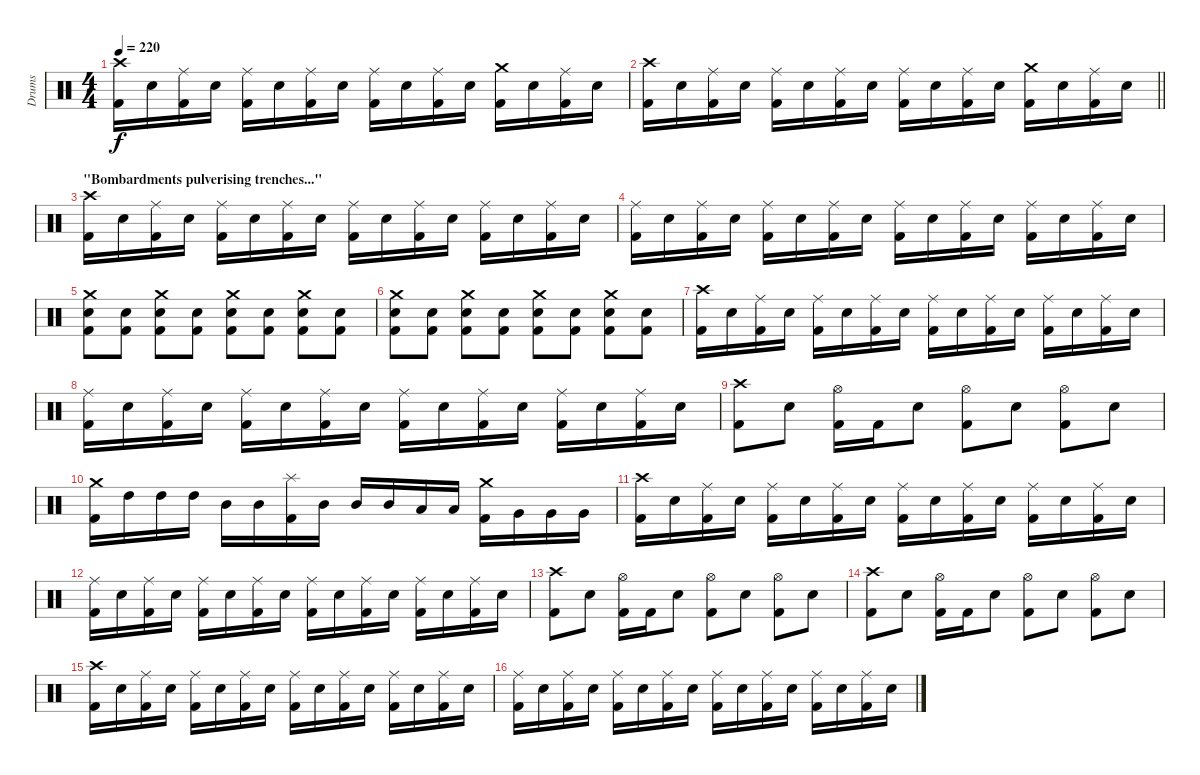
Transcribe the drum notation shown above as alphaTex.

\track ("Drums" "Drums") {instrument percussion}
\staff {score}
\articulation defaults
\ts (4 4)
\tempo 220
\clef neutral
\ks c
("Crash high (hit)" "Kick (hit) 2").16{dy f} "Electric Snare (hit)".16 ("Ride (middle)" "Kick (hit) 2").16 "Electric Snare (hit)".16 ("Ride (middle)" "Kick (hit) 2").16 "Electric Snare (hit)".16 ("Ride (middle)" "Kick (hit) 2").16 "Electric Snare (hit)".16 ("Ride (middle)" "Kick (hit) 2").16 "Electric Snare (hit)".16 ("Ride (middle)" "Kick (hit) 2").16 "Electric Snare (hit)".16 ("Crash medium (hit)" "Kick (hit) 2").16 "Electric Snare (hit)".16 ("Ride (middle)" "Kick (hit) 2").16 "Electric Snare (hit)".16 |
\barLineRight lightlight
("Crash high (hit)" "Kick (hit) 2").16 "Electric Snare (hit)".16 ("Ride (middle)" "Kick (hit) 2").16 "Electric Snare (hit)".16 ("Ride (middle)" "Kick (hit) 2").16 "Electric Snare (hit)".16 ("Ride (middle)" "Kick (hit) 2").16 "Electric Snare (hit)".16 ("Ride (middle)" "Kick (hit) 2").16 "Electric Snare (hit)".16 ("Ride (middle)" "Kick (hit) 2").16 "Electric Snare (hit)".16 ("Crash medium (hit)" "Kick (hit) 2").16 "Electric Snare (hit)".16 ("Ride (middle)" "Kick (hit) 2").16 "Electric Snare (hit)".16 |
\section ("" "\"Bombardments pulverising trenches...\"")
("Crash high (hit)" "Kick (hit) 2").16 "Electric Snare (hit)".16 ("Ride (middle)" "Kick (hit) 2").16 "Electric Snare (hit)".16 ("Ride (middle)" "Kick (hit) 2").16 "Electric Snare (hit)".16 ("Ride (middle)" "Kick (hit) 2").16 "Electric Snare (hit)".16 ("Ride (middle)" "Kick (hit) 2").16 "Electric Snare (hit)".16 ("Ride (middle)" "Kick (hit) 2").16 "Electric Snare (hit)".16 ("Ride (middle)" "Kick (hit) 2").16 "Electric Snare (hit)".16 ("Ride (middle)" "Kick (hit) 2").16 "Electric Snare (hit)".16 |
("Ride (middle)" "Kick (hit) 2").16 "Electric Snare (hit)".16 ("Ride (middle)" "Kick (hit) 2").16 "Electric Snare (hit)".16 ("Ride (middle)" "Kick (hit) 2").16 "Electric Snare (hit)".16 ("Ride (middle)" "Kick (hit) 2").16 "Electric Snare (hit)".16 ("Ride (middle)" "Kick (hit) 2").16 "Electric Snare (hit)".16 ("Ride (middle)" "Kick (hit) 2").16 "Electric Snare (hit)".16 ("Ride (middle)" "Kick (hit) 2").16 "Electric Snare (hit)".16 ("Ride (middle)" "Kick (hit) 2").16 "Electric Snare (hit)".16 |
("Crash medium (hit)" "Electric Snare (hit)" "Kick (hit) 2").8 ("Electric Snare (hit)" "Kick (hit) 2").8 ("Crash medium (hit)" "Electric Snare (hit)" "Kick (hit) 2").8 ("Electric Snare (hit)" "Kick (hit) 2").8 ("Crash medium (hit)" "Electric Snare (hit)" "Kick (hit) 2").8 ("Electric Snare (hit)" "Kick (hit) 2").8 ("Crash medium (hit)" "Electric Snare (hit)" "Kick (hit) 2").8 ("Electric Snare (hit)" "Kick (hit) 2").8 |
("Crash medium (hit)" "Electric Snare (hit)" "Kick (hit) 2").8 ("Electric Snare (hit)" "Kick (hit) 2").8 ("Crash medium (hit)" "Electric Snare (hit)" "Kick (hit) 2").8 ("Electric Snare (hit)" "Kick (hit) 2").8 ("Crash medium (hit)" "Electric Snare (hit)" "Kick (hit) 2").8 ("Electric Snare (hit)" "Kick (hit) 2").8 ("Crash medium (hit)" "Electric Snare (hit)" "Kick (hit) 2").8 ("Electric Snare (hit)" "Kick (hit) 2").8 |
("Crash high (hit)" "Kick (hit) 2").16 "Electric Snare (hit)".16 ("Ride (middle)" "Kick (hit) 2").16 "Electric Snare (hit)".16 ("Ride (middle)" "Kick (hit) 2").16 "Electric Snare (hit)".16 ("Ride (middle)" "Kick (hit) 2").16 "Electric Snare (hit)".16 ("Ride (middle)" "Kick (hit) 2").16 "Electric Snare (hit)".16 ("Ride (middle)" "Kick (hit) 2").16 "Electric Snare (hit)".16 ("Ride (middle)" "Kick (hit) 2").16 "Electric Snare (hit)".16 ("Ride (middle)" "Kick (hit) 2").16 "Electric Snare (hit)".16 |
("Ride (middle)" "Kick (hit) 2").16 "Electric Snare (hit)".16 ("Ride (middle)" "Kick (hit) 2").16 "Electric Snare (hit)".16 ("Ride (middle)" "Kick (hit) 2").16 "Electric Snare (hit)".16 ("Ride (middle)" "Kick (hit) 2").16 "Electric Snare (hit)".16 ("Ride (middle)" "Kick (hit) 2").16 "Electric Snare (hit)".16 ("Ride (middle)" "Kick (hit) 2").16 "Electric Snare (hit)".16 ("Ride (middle)" "Kick (hit) 2").16 "Electric Snare (hit)".16 ("Ride (middle)" "Kick (hit) 2").16 "Electric Snare (hit)".16 |
("Crash high (hit)" "Kick (hit) 2").8 "Electric Snare (hit)".8 ("Hi-Hat (open)" "Kick (hit) 2").16 "Kick (hit) 2".16 "Electric Snare (hit)".8 ("Hi-Hat (open)" "Kick (hit) 2").8 "Electric Snare (hit)".8 ("Hi-Hat (open)" "Kick (hit) 2").8 "Electric Snare (hit)".8 |
("Crash medium (hit)" "Kick (hit) 2").16 "High Tom (hit)".16 "High Tom (hit)".16 "High Tom (hit)".16 "Mid Tom (hit)".16 "Mid Tom (hit)".16 ("Splash (hit)" "Kick (hit) 2").16 "Mid Tom (hit)".16 "Mid Tom (hit)".16 "Mid Tom (hit)".16 "Low Tom (hit)".16 "Low Tom (hit)".16 ("Crash medium (hit)" "Kick (hit) 2").16 "Very Low Tom (hit)".16 "Very Low Tom (hit)".16 "Very Low Tom (hit)".16 |
("Crash high (hit)" "Kick (hit) 2").16 "Electric Snare (hit)".16 ("Ride (middle)" "Kick (hit) 2").16 "Electric Snare (hit)".16 ("Ride (middle)" "Kick (hit) 2").16 "Electric Snare (hit)".16 ("Ride (middle)" "Kick (hit) 2").16 "Electric Snare (hit)".16 ("Ride (middle)" "Kick (hit) 2").16 "Electric Snare (hit)".16 ("Ride (middle)" "Kick (hit) 2").16 "Electric Snare (hit)".16 ("Ride (middle)" "Kick (hit) 2").16 "Electric Snare (hit)".16 ("Ride (middle)" "Kick (hit) 2").16 "Electric Snare (hit)".16 |
("Ride (middle)" "Kick (hit) 2").16 "Electric Snare (hit)".16 ("Ride (middle)" "Kick (hit) 2").16 "Electric Snare (hit)".16 ("Ride (middle)" "Kick (hit) 2").16 "Electric Snare (hit)".16 ("Ride (middle)" "Kick (hit) 2").16 "Electric Snare (hit)".16 ("Ride (middle)" "Kick (hit) 2").16 "Electric Snare (hit)".16 ("Ride (middle)" "Kick (hit) 2").16 "Electric Snare (hit)".16 ("Ride (middle)" "Kick (hit) 2").16 "Electric Snare (hit)".16 ("Ride (middle)" "Kick (hit) 2").16 "Electric Snare (hit)".16 |
("Crash high (hit)" "Kick (hit) 2").8 "Electric Snare (hit)".8 ("Hi-Hat (open)" "Kick (hit) 2").16 "Kick (hit) 2".16 "Electric Snare (hit)".8 ("Hi-Hat (open)" "Kick (hit) 2").8 "Electric Snare (hit)".8 ("Hi-Hat (open)" "Kick (hit) 2").8 "Electric Snare (hit)".8 |
("Crash high (hit)" "Kick (hit) 2").8 "Electric Snare (hit)".8 ("Hi-Hat (open)" "Kick (hit) 2").16 "Kick (hit) 2".16 "Electric Snare (hit)".8 ("Hi-Hat (open)" "Kick (hit) 2").8 "Electric Snare (hit)".8 ("Hi-Hat (open)" "Kick (hit) 2").8 "Electric Snare (hit)".8 |
("Crash high (hit)" "Kick (hit) 2").16 "Electric Snare (hit)".16 ("Ride (middle)" "Kick (hit) 2").16 "Electric Snare (hit)".16 ("Ride (middle)" "Kick (hit) 2").16 "Electric Snare (hit)".16 ("Ride (middle)" "Kick (hit) 2").16 "Electric Snare (hit)".16 ("Ride (middle)" "Kick (hit) 2").16 "Electric Snare (hit)".16 ("Ride (middle)" "Kick (hit) 2").16 "Electric Snare (hit)".16 ("Ride (middle)" "Kick (hit) 2").16 "Electric Snare (hit)".16 ("Ride (middle)" "Kick (hit) 2").16 "Electric Snare (hit)".16 |
("Ride (middle)" "Kick (hit) 2").16 "Electric Snare (hit)".16 ("Ride (middle)" "Kick (hit) 2").16 "Electric Snare (hit)".16 ("Ride (middle)" "Kick (hit) 2").16 "Electric Snare (hit)".16 ("Ride (middle)" "Kick (hit) 2").16 "Electric Snare (hit)".16 ("Ride (middle)" "Kick (hit) 2").16 "Electric Snare (hit)".16 ("Ride (middle)" "Kick (hit) 2").16 "Electric Snare (hit)".16 ("Ride (middle)" "Kick (hit) 2").16 "Electric Snare (hit)".16 ("Ride (middle)" "Kick (hit) 2").16 "Electric Snare (hit)".16
